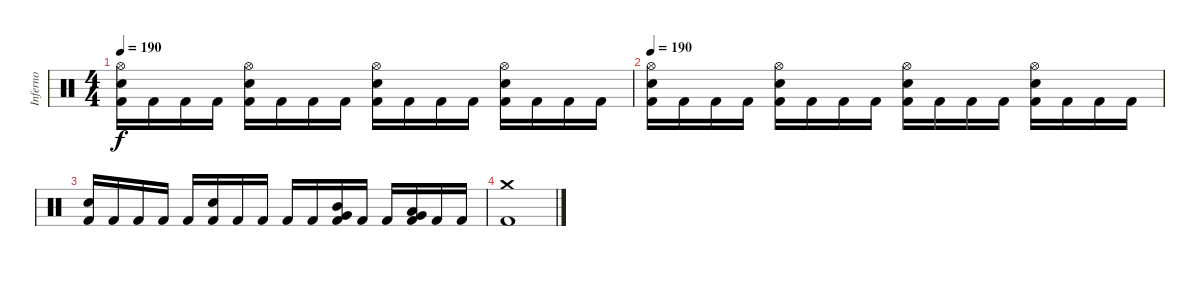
\track ("Inferno" "Inferno") {instrument percussion}
\staff {score}
\articulation defaults
\ts (4 4)
\tempo 190
\clef neutral
\ks c
("Hi-Hat (open)" "Snare (hit) 2" "Kick (hit) 2").16{dy f} "Kick (hit) 2".16 "Kick (hit) 2".16 "Kick (hit) 2".16 ("Hi-Hat (open)" "Snare (hit) 2" "Kick (hit) 2").16 "Kick (hit) 2".16 "Kick (hit) 2".16 "Kick (hit) 2".16 ("Hi-Hat (open)" "Snare (hit) 2" "Kick (hit) 2").16 "Kick (hit) 2".16 "Kick (hit) 2".16 "Kick (hit) 2".16 ("Hi-Hat (open)" "Snare (hit) 2" "Kick (hit) 2").16 "Kick (hit) 2".16 "Kick (hit) 2".16 "Kick (hit) 2".16 |
\tempo 80
\tempo 190
("Hi-Hat (open)" "Snare (hit) 2" "Kick (hit) 2").16 "Kick (hit) 2".16 "Kick (hit) 2".16 "Kick (hit) 2".16 ("Hi-Hat (open)" "Snare (hit) 2" "Kick (hit) 2").16 "Kick (hit) 2".16 "Kick (hit) 2".16 "Kick (hit) 2".16 ("Hi-Hat (open)" "Snare (hit) 2" "Kick (hit) 2").16 "Kick (hit) 2".16 "Kick (hit) 2".16 "Kick (hit) 2".16 ("Hi-Hat (open)" "Snare (hit) 2" "Kick (hit) 2").16 "Kick (hit) 2".16 "Kick (hit) 2".16 "Kick (hit) 2".16 |
("Snare (hit) 2" "Kick (hit) 2").16 "Kick (hit) 2".16 "Kick (hit) 2".16 "Kick (hit) 2".16 "Kick (hit) 2".16 ("Snare (hit) 2" "Kick (hit) 2").16 "Kick (hit) 2".16 "Kick (hit) 2".16 "Kick (hit) 2".16 "Kick (hit) 2".16 ("Very Low Tom (hit)" "Mid Tom (hit)" "Kick (hit) 2").16 "Kick (hit) 2".16 "Kick (hit) 2".16 ("Low Floor Tom (hit)" "Very Low Tom (hit)" "Kick (hit) 2").16 "Kick (hit) 2".16 "Kick (hit) 2".16 |
("Crash medium (hit)" "Kick (hit) 2").1
